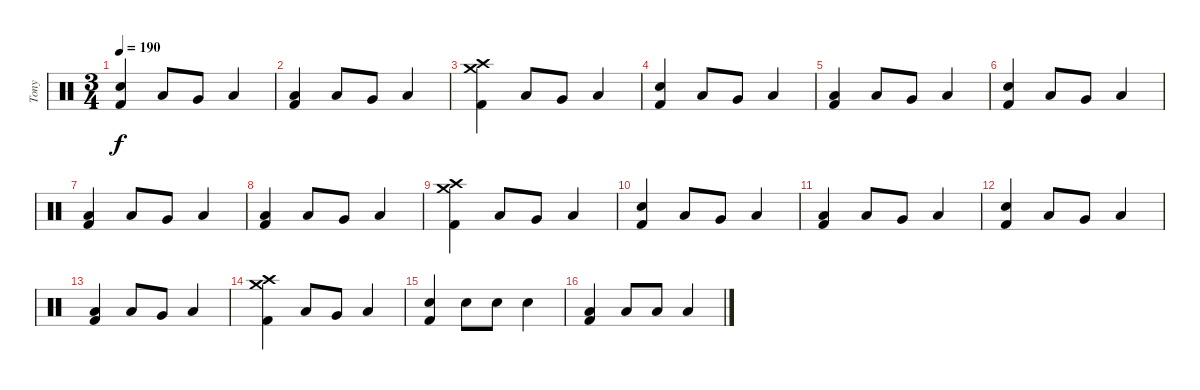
\track ("Tony" "Tony") {instrument percussion}
\staff {score}
\articulation defaults
\ts (3 4)
\tempo 190
\clef neutral
\ks c
("Snare (hit) 2" "Kick (hit) 2").4{dy f} "Low Tom (hit)".8 "Very Low Tom (hit)".8 "Low Tom (hit)".4 |
("Low Tom (hit)" "Kick (hit) 2").4 "Low Tom (hit)".8 "Very Low Tom (hit)".8 "Low Tom (hit)".4 |
("Crash high (hit)" "Crash medium (hit)" "Kick (hit) 2").4 "Low Tom (hit)".8 "Very Low Tom (hit)".8 "Low Tom (hit)".4 |
("Snare (hit) 2" "Kick (hit) 2").4 "Low Tom (hit)".8 "Very Low Tom (hit)".8 "Low Tom (hit)".4 |
("Low Tom (hit)" "Kick (hit) 2").4 "Low Tom (hit)".8 "Very Low Tom (hit)".8 "Low Tom (hit)".4 |
("Snare (hit) 2" "Kick (hit) 2").4 "Low Tom (hit)".8 "Very Low Tom (hit)".8 "Low Tom (hit)".4 |
("Low Tom (hit)" "Kick (hit) 2").4 "Low Tom (hit)".8 "Very Low Tom (hit)".8 "Low Tom (hit)".4 |
("Low Tom (hit)" "Kick (hit) 2").4 "Low Tom (hit)".8 "Very Low Tom (hit)".8 "Low Tom (hit)".4 |
("Crash high (hit)" "Crash medium (hit)" "Kick (hit) 2").4 "Low Tom (hit)".8 "Very Low Tom (hit)".8 "Low Tom (hit)".4 |
("Snare (hit) 2" "Kick (hit) 2").4 "Low Tom (hit)".8 "Very Low Tom (hit)".8 "Low Tom (hit)".4 |
("Low Tom (hit)" "Kick (hit) 2").4 "Low Tom (hit)".8 "Very Low Tom (hit)".8 "Low Tom (hit)".4 |
("Snare (hit) 2" "Kick (hit) 2").4 "Low Tom (hit)".8 "Very Low Tom (hit)".8 "Low Tom (hit)".4 |
("Low Tom (hit)" "Kick (hit) 2").4 "Low Tom (hit)".8 "Very Low Tom (hit)".8 "Low Tom (hit)".4 |
("Crash high (hit)" "Crash medium (hit)" "Kick (hit) 2").4 "Low Tom (hit)".8 "Very Low Tom (hit)".8 "Low Tom (hit)".4 |
("Snare (hit) 2" "Kick (hit) 2").4 "Snare (hit) 2".8 "Snare (hit) 2".8 "Snare (hit) 2".4 |
("Low Tom (hit)" "Kick (hit) 2").4 "Low Tom (hit)".8 "Low Tom (hit)".8 "Low Tom (hit)".4
